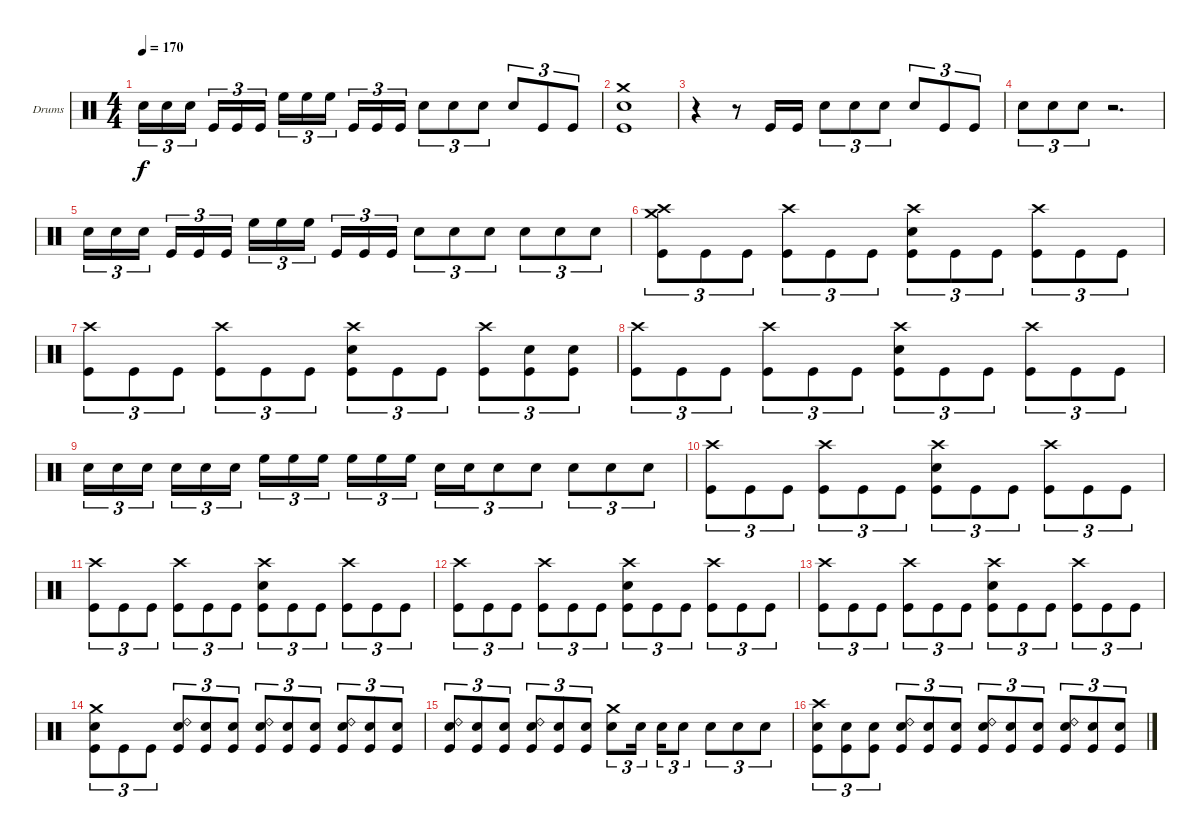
\bracketExtendMode groupsimilarinstruments
\firstSystemTrackNameOrientation horizontal
\otherSystemsTrackNameOrientation horizontal
\track ("Drumkit" "Drums") {instrument percussion}
\staff {score}
\articulation defaults
\ts (4 4)
\tempo 170
\clef neutral
\ks c "Snare (hit) 2".16{tu (3 2) dy f} "Snare (hit) 2".16{tu (3 2)} "Snare (hit) 2".16{tu (3 2)} "Kick (hit)".16{tu (3 2)} "Kick (hit)".16{tu (3 2)} "Kick (hit)".16{tu (3 2)} "High Floor Tom (hit)".16{tu (3 2)} "High Floor Tom (hit)".16{tu (3 2)} "High Floor Tom (hit)".16{tu (3 2)} "Kick (hit)".16{tu (3 2)} "Kick (hit)".16{tu (3 2)} "Kick (hit)".16{tu (3 2)} "Snare (hit) 2".8{tu (3 2)} "Snare (hit) 2".8{tu (3 2)} "Snare (hit) 2".8{tu (3 2)} "Snare (hit) 2".8{tu (3 2)} "Kick (hit)".8{tu (3 2)} "Kick (hit)".8{tu (3 2)}
|
("Crash medium (hit)" "Snare (hit) 2" "Kick (hit)").1 |
r.4 r.8 "Kick (hit)".16 "Kick (hit)".16 "Snare (hit) 2".8{tu (3 2)} "Snare (hit) 2".8{tu (3 2)} "Snare (hit) 2".8{tu (3 2)} "Snare (hit) 2".8{tu (3 2)} "Kick (hit)".8{tu (3 2)} "Kick (hit)".8{tu (3 2)} |
"Snare (hit) 2".8{tu (3 2)} "Snare (hit) 2".8{tu (3 2)} "Snare (hit) 2".8{tu (3 2)} r.2{d} |
"Snare (hit) 2".16{tu (3 2)} "Snare (hit) 2".16{tu (3 2)} "Snare (hit) 2".16{tu (3 2)} "Kick (hit)".16{tu (3 2)} "Kick (hit)".16{tu (3 2)} "Kick (hit)".16{tu (3 2)} "High Floor Tom (hit)".16{tu (3 2)} "High Floor Tom (hit)".16{tu (3 2)} "High Floor Tom (hit)".16{tu (3 2)} "Kick (hit)".16{tu (3 2)} "Kick (hit)".16{tu (3 2)} "Kick (hit)".16{tu (3 2)} "Snare (hit) 2".8{tu (3 2)} "Snare (hit) 2".8{tu (3 2)} "Snare (hit) 2".8{tu (3 2)} "Snare (hit) 2".8{tu (3 2)} "Snare (hit) 2".8{tu (3 2)} "Snare (hit) 2".8{tu (3 2)} |
("Crash medium (hit)" "Crash high (hit)" "Kick (hit)").8{tu (3 2)} "Kick (hit)".8{tu (3 2)} "Kick (hit)".8{tu (3 2)} ("Crash high (hit)" "Kick (hit)").8{tu (3 2)} "Kick (hit)".8{tu (3 2)} "Kick (hit)".8{tu (3 2)} ("Crash high (hit)" "Snare (hit) 2" "Kick (hit)").8{tu (3 2)} "Kick (hit)".8{tu (3 2)} "Kick (hit)".8{tu (3 2)} ("Crash high (hit)" "Kick (hit)").8{tu (3 2)} "Kick (hit)".8{tu (3 2)} "Kick (hit)".8{tu (3 2)} |
("Crash high (hit)" "Kick (hit)").8{tu (3 2)} "Kick (hit)".8{tu (3 2)} "Kick (hit)".8{tu (3 2)} ("Crash high (hit)" "Kick (hit)").8{tu (3 2)} "Kick (hit)".8{tu (3 2)} "Kick (hit)".8{tu (3 2)} ("Crash high (hit)" "Snare (hit) 2" "Kick (hit)").8{tu (3 2)} "Kick (hit)".8{tu (3 2)} "Kick (hit)".8{tu (3 2)} ("Crash high (hit)" "Kick (hit)").8{tu (3 2)} ("Snare (hit) 2" "Kick (hit)").8{tu (3 2)} ("Snare (hit) 2" "Kick (hit)").8{tu (3 2)} |
("Crash high (hit)" "Kick (hit)").8{tu (3 2)} "Kick (hit)".8{tu (3 2)} "Kick (hit)".8{tu (3 2)} ("Crash high (hit)" "Kick (hit)").8{tu (3 2)} "Kick (hit)".8{tu (3 2)} "Kick (hit)".8{tu (3 2)} ("Crash high (hit)" "Snare (hit) 2" "Kick (hit)").8{tu (3 2)} "Kick (hit)".8{tu (3 2)} "Kick (hit)".8{tu (3 2)} ("Crash high (hit)" "Kick (hit)").8{tu (3 2)} "Kick (hit)".8{tu (3 2)} "Kick (hit)".8{tu (3 2)} |
"Snare (hit) 2".16{tu (3 2)} "Snare (hit) 2".16{tu (3 2)} "Snare (hit) 2".16{tu (3 2)} "Snare (hit) 2".16{tu (3 2)} "Snare (hit) 2".16{tu (3 2)} "Snare (hit) 2".16{tu (3 2)} "High Floor Tom (hit)".16{tu (3 2)} "High Floor Tom (hit)".16{tu (3 2)} "High Floor Tom (hit)".16{tu (3 2)} "High Floor Tom (hit)".16{tu (3 2)} "High Floor Tom (hit)".16{tu (3 2)} "High Floor Tom (hit)".16{tu (3 2)} "Snare (hit) 2".16{tu (3 2)} "Snare (hit) 2".16{tu (3 2)} "Snare (hit) 2".8{tu (3 2)} "Snare (hit) 2".8{tu (3 2)} "Snare (hit) 2".8{tu (3 2)} "Snare (hit) 2".8{tu (3 2)} "Snare (hit) 2".8{tu (3 2)} |
("Crash high (hit)" "Kick (hit)").8{tu (3 2)} "Kick (hit)".8{tu (3 2)} "Kick (hit)".8{tu (3 2)} ("Crash high (hit)" "Kick (hit)").8{tu (3 2)} "Kick (hit)".8{tu (3 2)} "Kick (hit)".8{tu (3 2)} ("Crash high (hit)" "Snare (hit) 2" "Kick (hit)").8{tu (3 2)} "Kick (hit)".8{tu (3 2)} "Kick (hit)".8{tu (3 2)} ("Crash high (hit)" "Kick (hit)").8{tu (3 2)} "Kick (hit)".8{tu (3 2)} "Kick (hit)".8{tu (3 2)} |
("Crash high (hit)" "Kick (hit)").8{tu (3 2)} "Kick (hit)".8{tu (3 2)} "Kick (hit)".8{tu (3 2)} ("Crash high (hit)" "Kick (hit)").8{tu (3 2)} "Kick (hit)".8{tu (3 2)} "Kick (hit)".8{tu (3 2)} ("Crash high (hit)" "Snare (hit) 2" "Kick (hit)").8{tu (3 2)} "Kick (hit)".8{tu (3 2)} "Kick (hit)".8{tu (3 2)} ("Crash high (hit)" "Kick (hit)").8{tu (3 2)} "Kick (hit)".8{tu (3 2)} "Kick (hit)".8{tu (3 2)} |
("Crash high (hit)" "Kick (hit)").8{tu (3 2)} "Kick (hit)".8{tu (3 2)} "Kick (hit)".8{tu (3 2)} ("Crash high (hit)" "Kick (hit)").8{tu (3 2)} "Kick (hit)".8{tu (3 2)} "Kick (hit)".8{tu (3 2)} ("Crash high (hit)" "Snare (hit) 2" "Kick (hit)").8{tu (3 2)} "Kick (hit)".8{tu (3 2)} "Kick (hit)".8{tu (3 2)} ("Crash high (hit)" "Kick (hit)").8{tu (3 2)} "Kick (hit)".8{tu (3 2)} "Kick (hit)".8{tu (3 2)} |
("Crash high (hit)" "Kick (hit)").8{tu (3 2)} "Kick (hit)".8{tu (3 2)} "Kick (hit)".8{tu (3 2)} ("Crash high (hit)" "Kick (hit)").8{tu (3 2)} "Kick (hit)".8{tu (3 2)} "Kick (hit)".8{tu (3 2)} ("Crash high (hit)" "Snare (hit) 2" "Kick (hit)").8{tu (3 2)} "Kick (hit)".8{tu (3 2)} "Kick (hit)".8{tu (3 2)} ("Crash high (hit)" "Kick (hit)").8{tu (3 2)} "Kick (hit)".8{tu (3 2)} "Kick (hit)".8{tu (3 2)} |
("Crash medium (hit)" "Snare (hit) 2" "Kick (hit)").8{tu (3 2)} "Kick (hit)".8{tu (3 2)} "Kick (hit)".8{tu (3 2)} ("Ride (bell) 2" "Snare (hit) 2" "Kick (hit)").8{tu (3 2)} ("Snare (hit) 2" "Kick (hit)").8{tu (3 2)} ("Snare (hit) 2" "Kick (hit)").8{tu (3 2)} ("Ride (bell) 2" "Snare (hit) 2" "Kick (hit)").8{tu (3 2)} ("Snare (hit) 2" "Kick (hit)").8{tu (3 2)} ("Snare (hit) 2" "Kick (hit)").8{tu (3 2)} ("Ride (bell) 2" "Snare (hit) 2" "Kick (hit)").8{tu (3 2)} ("Snare (hit) 2" "Kick (hit)").8{tu (3 2)} ("Snare (hit) 2" "Kick (hit)").8{tu (3 2)} |
("Ride (bell) 2" "Snare (hit) 2" "Kick (hit)").8{tu (3 2)} ("Snare (hit) 2" "Kick (hit)").8{tu (3 2)} ("Snare (hit) 2" "Kick (hit)").8{tu (3 2)} ("Ride (bell) 2" "Snare (hit) 2" "Kick (hit)").8{tu (3 2)} ("Snare (hit) 2" "Kick (hit)").8{tu (3 2)} ("Snare (hit) 2" "Kick (hit)").8{tu (3 2)} ("Crash medium (hit)" "Snare (hit) 2").8{tu (3 2)} "Snare (hit) 2".16{tu (3 2)} "Snare (hit) 2".16{tu (3 2)} "Snare (hit) 2".8{tu (3 2)} "Snare (hit) 2".8{tu (3 2)} "Snare (hit) 2".8{tu (3 2)} "Snare (hit) 2".8{tu (3 2)} |
("Crash high (hit)" "Snare (hit) 2" "Kick (hit)").8{tu (3 2)} ("Snare (hit) 2" "Kick (hit)").8{tu (3 2)} ("Snare (hit) 2" "Kick (hit)").8{tu (3 2)} ("Ride (bell) 2" "Snare (hit) 2" "Kick (hit)").8{tu (3 2)} ("Snare (hit) 2" "Kick (hit)").8{tu (3 2)} ("Snare (hit) 2" "Kick (hit)").8{tu (3 2)} ("Ride (bell) 2" "Snare (hit) 2" "Kick (hit)").8{tu (3 2)} ("Snare (hit) 2" "Kick (hit)").8{tu (3 2)} ("Snare (hit) 2" "Kick (hit)").8{tu (3 2)} ("Ride (bell) 2" "Snare (hit) 2" "Kick (hit)").8{tu (3 2)} ("Snare (hit) 2" "Kick (hit)").8{tu (3 2)} ("Snare (hit) 2" "Kick (hit)").8{tu (3 2)}
